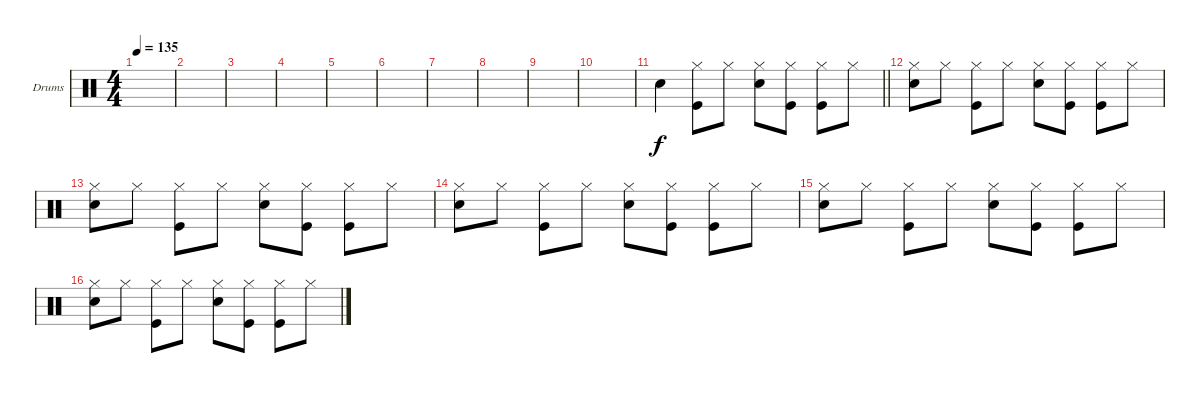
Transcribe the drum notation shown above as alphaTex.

\bracketExtendMode groupsimilarinstruments
\firstSystemTrackNameOrientation horizontal
\otherSystemsTrackNameOrientation horizontal
\track ("Drumkit" "Drums") {instrument percussion}
\staff {score}
\articulation defaults
\ts (4 4)
\tempo 135
\clef neutral
\ks c
|
|
|
|
|
|
|
|
|
|
\barLineRight lightlight "Snare (hit) 2".4
("Hi-Hat (closed)" "Kick (hit)").8 "Hi-Hat (closed)".8 ("Hi-Hat (closed)" "Snare (hit) 2").8 ("Hi-Hat (closed)" "Kick (hit)").8 ("Hi-Hat (closed)" "Kick (hit)").8 "Hi-Hat (closed)".8 |
("Snare (hit) 2" "Hi-Hat (closed)").8 "Hi-Hat (closed)".8 ("Hi-Hat (closed)" "Kick (hit)").8 "Hi-Hat (closed)".8 ("Hi-Hat (closed)" "Snare (hit) 2").8 ("Hi-Hat (closed)" "Kick (hit)").8 ("Hi-Hat (closed)" "Kick (hit)").8 "Hi-Hat (closed)".8 |
("Snare (hit) 2" "Hi-Hat (closed)").8 "Hi-Hat (closed)".8 ("Hi-Hat (closed)" "Kick (hit)").8 "Hi-Hat (closed)".8 ("Hi-Hat (closed)" "Snare (hit) 2").8 ("Hi-Hat (closed)" "Kick (hit)").8 ("Hi-Hat (closed)" "Kick (hit)").8 "Hi-Hat (closed)".8 |
("Snare (hit) 2" "Hi-Hat (closed)").8 "Hi-Hat (closed)".8 ("Hi-Hat (closed)" "Kick (hit)").8 "Hi-Hat (closed)".8 ("Hi-Hat (closed)" "Snare (hit) 2").8 ("Hi-Hat (closed)" "Kick (hit)").8 ("Hi-Hat (closed)" "Kick (hit)").8 "Hi-Hat (closed)".8 |
("Snare (hit) 2" "Hi-Hat (closed)").8 "Hi-Hat (closed)".8 ("Hi-Hat (closed)" "Kick (hit)").8 "Hi-Hat (closed)".8 ("Hi-Hat (closed)" "Snare (hit) 2").8 ("Hi-Hat (closed)" "Kick (hit)").8 ("Hi-Hat (closed)" "Kick (hit)").8 "Hi-Hat (closed)".8 |
("Snare (hit) 2" "Hi-Hat (closed)").8 "Hi-Hat (closed)".8 ("Hi-Hat (closed)" "Kick (hit)").8 "Hi-Hat (closed)".8 ("Hi-Hat (closed)" "Snare (hit) 2").8 ("Hi-Hat (closed)" "Kick (hit)").8 ("Hi-Hat (closed)" "Kick (hit)").8 "Hi-Hat (closed)".8
